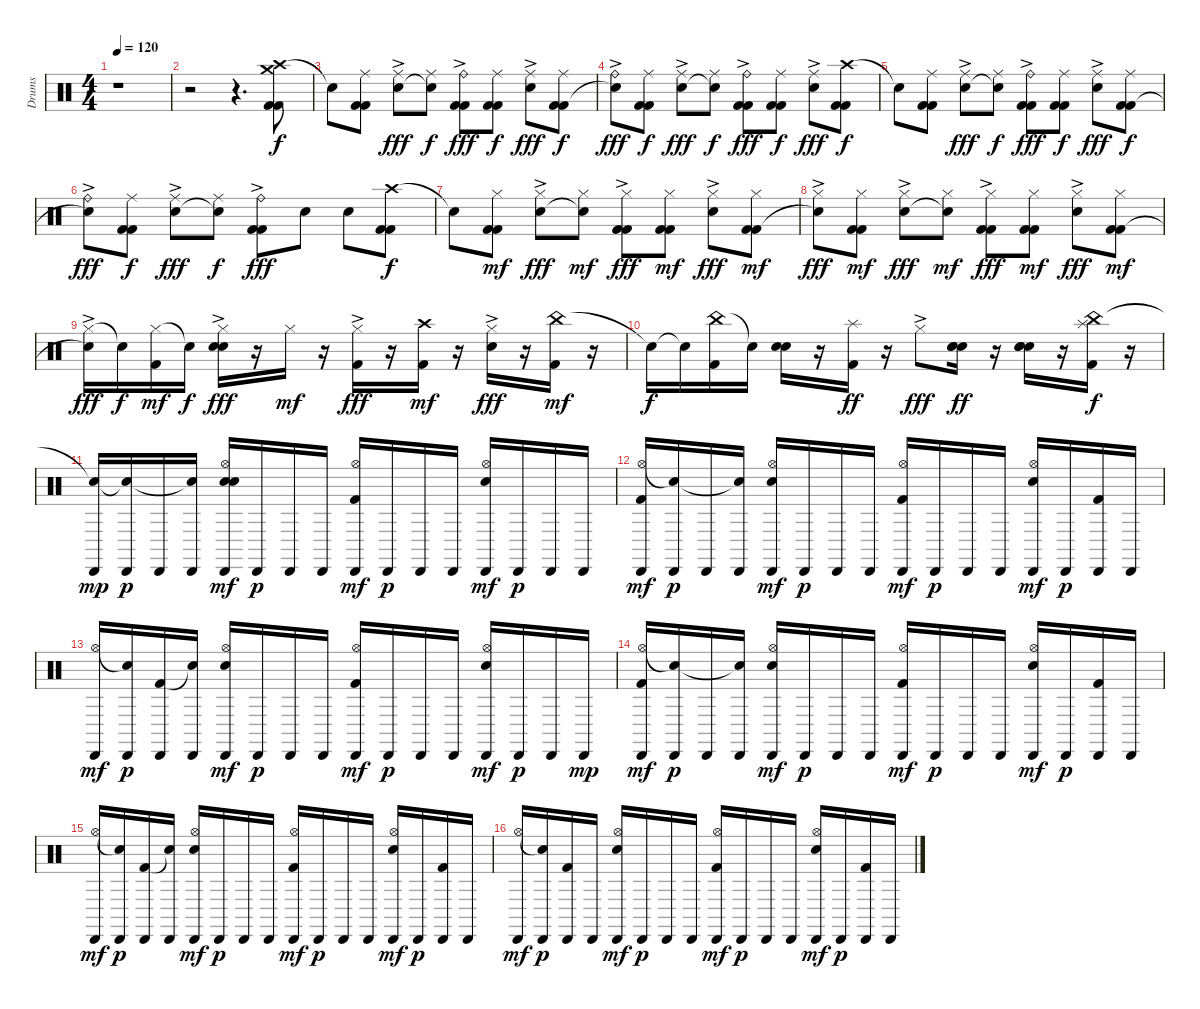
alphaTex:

\track ("Drums" "Drums") {instrument percussion}
\staff {score}
\articulation defaults
\ts (4 4)
\tempo 120
\clef neutral
\ks c
r.1{dy f} |
r.2 r.4{d} ("Crash high (hit)" "Crash medium (hit)" "Kick (hit) 2" "Kick (hit) 2").8 |
"Snare (hit)"{t}.8 ("Ride (middle)" "Kick (hit) 2" "Kick (hit) 2").8 ("Ride (middle)"{ac} "Snare (hit) 2").8{dy fff} ("Ride (middle)" "Electric Snare (hit)"{t}).8{dy f} ("Ride (bell)"{ac} "Kick (hit) 2" "Kick (hit) 2").8{dy fff} ("Ride (middle)" "Kick (hit) 2" "Kick (hit) 2").8{dy f} ("Ride (middle)"{ac} "Snare (hit) 2").8{dy fff} ("Ride (middle)" "Kick (hit) 2" "Kick (hit) 2").8{dy f} |
("Ride (bell)"{ac} "Snare (hit)"{t}).8{dy fff} ("Ride (middle)" "Kick (hit) 2" "Kick (hit) 2").8{dy f} ("Ride (middle)"{ac} "Snare (hit) 2").8{dy fff} ("Ride (middle)" "Electric Snare (hit)"{t}).8{dy f} ("Ride (bell)"{ac} "Kick (hit) 2" "Kick (hit) 2").8{dy fff} ("Ride (middle)" "Kick (hit) 2" "Kick (hit) 2").8{dy f} ("Ride (middle)"{ac} "Snare (hit) 2").8{dy fff} ("Crash high (hit)" "Kick (hit) 2" "Kick (hit) 2").8{dy f} |
"Snare (hit)"{t}.8 ("Ride (middle)" "Kick (hit) 2" "Kick (hit) 2").8 ("Ride (middle)"{ac} "Snare (hit) 2").8{dy fff} ("Ride (middle)" "Electric Snare (hit)"{t}).8{dy f} ("Ride (bell)"{ac} "Kick (hit) 2" "Kick (hit) 2").8{dy fff} ("Ride (middle)" "Kick (hit) 2" "Kick (hit) 2").8{dy f} ("Ride (middle)"{ac} "Snare (hit) 2").8{dy fff} ("Ride (middle)" "Kick (hit) 2" "Kick (hit) 2").8{dy f} |
("Ride (bell)"{ac} "Snare (hit)"{t}).8{dy fff} ("Ride (middle)" "Kick (hit) 2" "Kick (hit) 2").8{dy f} ("Ride (middle)"{ac} "Snare (hit) 2").8{dy fff} ("Ride (middle)" "Electric Snare (hit)"{t}).8{dy f} ("Ride (bell)"{ac} "Kick (hit) 2" "Kick (hit) 2").8{dy fff} "Snare (hit) 2".8 "Snare (hit) 2".8 ("Crash high (hit)" "Kick (hit) 2" "Kick (hit) 2").8{dy f} |
"Snare (hit)"{t}.8 ("Hi-Hat (closed)" "Kick (hit) 2" "Kick (hit) 2").8{dy mf} ("Hi-Hat (closed)"{ac} "Snare (hit) 2").8{dy fff} ("Hi-Hat (closed)" "Electric Snare (hit)"{t}).8{dy mf} ("Hi-Hat (closed)"{ac} "Kick (hit) 2" "Kick (hit) 2").8{dy fff} ("Hi-Hat (closed)" "Kick (hit) 2" "Kick (hit) 2").8{dy mf} ("Hi-Hat (closed)"{ac} "Snare (hit) 2").8{dy fff} ("Hi-Hat (closed)" "Kick (hit) 2" "Kick (hit) 2").8{dy mf} |
("Hi-Hat (closed)"{ac} "Snare (hit)"{t}).8{dy fff} ("Hi-Hat (closed)" "Kick (hit) 2" "Kick (hit) 2").8{dy mf} ("Hi-Hat (closed)"{ac} "Snare (hit) 2").8{dy fff} ("Hi-Hat (closed)" "Electric Snare (hit)"{t}).8{dy mf} ("Hi-Hat (closed)"{ac} "Kick (hit) 2" "Kick (hit) 2").8{dy fff} ("Hi-Hat (closed)" "Kick (hit) 2" "Kick (hit) 2").8{dy mf} ("Hi-Hat (closed)"{ac} "Snare (hit) 2").8{dy fff} ("Hi-Hat (closed)" "Kick (hit) 2" "Kick (hit) 2").8{dy mf} |
("Hi-Hat (closed)"{ac} "Snare (hit)"{t}).16{dy fff} "Snare (hit)"{t}.16{dy f} ("Hi-Hat (closed)" "Kick (hit) 2").16{dy mf} "Snare (hit)"{t}.16{dy f} ("Hi-Hat (closed)"{ac} "Snare (hit) 2" "Snare (hit) 2").16{dy fff} r.16 "Hi-Hat (closed)".16{dy mf} r.16 ("Hi-Hat (closed)"{ac} "Kick (hit) 2").16{dy fff} r.16 ("Crash high (hit)" "Kick (hit) 2").16{dy mf} r.16 ("Hi-Hat (closed)"{ac} "Snare (hit) 2").16{dy fff} r.16 ("China (hit)" "Kick (hit) 2").16{dy mf} r.16 |
"Snare (hit)"{t}.16{dy f} "Snare (hit)"{t}.16 ("China (hit)" "Kick (hit) 2").16 "Snare (hit)"{t}.16 ("Snare (hit) 2" "Snare (hit) 2").16 r.16 ("Splash (hit)" "Kick (hit) 2").16{dy ff} r.16 "Hi-Hat (closed)"{ac}.8{dy fff} ("Snare (hit) 2" "Snare (hit) 2" "Snare (hit) 2").16{dy ff} r.16 ("Snare (hit) 2" "Snare (hit) 2" "Snare (hit) 2").16 r.16 ("Splash (hit)" "China (hit)" "Kick (hit) 2").16{dy f} r.16 |
("Cabasa (hit)" "Snare (hit)"{t}).16{dy mp} ("Cabasa (hit)" "Snare (hit)"{t}).16{dy p} "Cabasa (hit)".16 ("Cabasa (hit)" "Snare (hit)"{t}).16 ("Cabasa (hit)" "Hi-Hat (open)" "Snare (hit) 2" "Snare (hit) 2").16{dy mf} "Cabasa (hit)".16{dy p} "Cabasa (hit)".16 "Cabasa (hit)".16 ("Cabasa (hit)" "Hi-Hat (open)" "Kick (hit) 2").16{dy mf} "Cabasa (hit)".16{dy p} "Cabasa (hit)".16 "Cabasa (hit)".16 ("Cabasa (hit)" "Hi-Hat (open)" "Snare (hit) 2").16{dy mf} "Cabasa (hit)".16{dy p} "Cabasa (hit)".16 "Cabasa (hit)".16 |
("Cabasa (hit)" "Hi-Hat (open)" "Kick (hit) 2").16{dy mf} ("Cabasa (hit)" "Snare (hit)"{t}).16{dy p} "Cabasa (hit)".16 ("Cabasa (hit)" "Snare (hit)"{t}).16 ("Cabasa (hit)" "Hi-Hat (open)" "Snare (hit) 2").16{dy mf} "Cabasa (hit)".16{dy p} "Cabasa (hit)".16 "Cabasa (hit)".16 ("Cabasa (hit)" "Hi-Hat (open)" "Kick (hit) 2").16{dy mf} "Cabasa (hit)".16{dy p} "Cabasa (hit)".16 "Cabasa (hit)".16 ("Cabasa (hit)" "Hi-Hat (open)" "Snare (hit) 2").16{dy mf} "Cabasa (hit)".16{dy p} ("Cabasa (hit)" "Kick (hit) 2").16 "Cabasa (hit)".16 |
("Cabasa (hit)" "Hi-Hat (open)").16{dy mf} ("Cabasa (hit)" "Snare (hit)"{t}).16{dy p} ("Cabasa (hit)" "Kick (hit) 2").16 ("Cabasa (hit)" "Snare (hit)"{t}).16 ("Cabasa (hit)" "Hi-Hat (open)" "Snare (hit) 2").16{dy mf} "Cabasa (hit)".16{dy p} "Cabasa (hit)".16 "Cabasa (hit)".16 ("Cabasa (hit)" "Hi-Hat (open)" "Kick (hit) 2").16{dy mf} "Cabasa (hit)".16{dy p} "Cabasa (hit)".16 "Cabasa (hit)".16 ("Cabasa (hit)" "Hi-Hat (open)" "Snare (hit) 2").16{dy mf} "Cabasa (hit)".16{dy p} "Cabasa (hit)".16 "Cabasa (hit)".16{dy mp} |
("Cabasa (hit)" "Hi-Hat (open)" "Kick (hit) 2").16{dy mf} ("Cabasa (hit)" "Snare (hit)"{t}).16{dy p} "Cabasa (hit)".16 ("Cabasa (hit)" "Snare (hit)"{t}).16 ("Cabasa (hit)" "Hi-Hat (open)" "Snare (hit) 2").16{dy mf} "Cabasa (hit)".16{dy p} "Cabasa (hit)".16 "Cabasa (hit)".16 ("Cabasa (hit)" "Hi-Hat (open)" "Kick (hit) 2").16{dy mf} "Cabasa (hit)".16{dy p} "Cabasa (hit)".16 "Cabasa (hit)".16 ("Cabasa (hit)" "Hi-Hat (open)" "Snare (hit) 2").16{dy mf} "Cabasa (hit)".16{dy p} ("Cabasa (hit)" "Kick (hit) 2").16 "Cabasa (hit)".16 |
("Cabasa (hit)" "Hi-Hat (open)").16{dy mf} ("Cabasa (hit)" "Snare (hit)"{t}).16{dy p} ("Cabasa (hit)" "Kick (hit) 2").16 ("Cabasa (hit)" "Snare (hit)"{t}).16 ("Cabasa (hit)" "Hi-Hat (open)" "Snare (hit) 2").16{dy mf} "Cabasa (hit)".16{dy p} "Cabasa (hit)".16 "Cabasa (hit)".16 ("Cabasa (hit)" "Hi-Hat (open)" "Kick (hit) 2").16{dy mf} "Cabasa (hit)".16{dy p} "Cabasa (hit)".16 "Cabasa (hit)".16 ("Cabasa (hit)" "Hi-Hat (open)" "Snare (hit) 2").16{dy mf} "Cabasa (hit)".16{dy p} ("Cabasa (hit)" "Kick (hit) 2").16 "Cabasa (hit)".16 |
("Cabasa (hit)" "Hi-Hat (open)").16{dy mf} ("Cabasa (hit)" "Snare (hit)"{t}).16{dy p} ("Cabasa (hit)" "Kick (hit) 2").16 "Cabasa (hit)".16 ("Cabasa (hit)" "Hi-Hat (open)" "Snare (hit) 2").16{dy mf} "Cabasa (hit)".16{dy p} "Cabasa (hit)".16 "Cabasa (hit)".16 ("Cabasa (hit)" "Hi-Hat (open)" "Kick (hit) 2").16{dy mf} "Cabasa (hit)".16{dy p} "Cabasa (hit)".16 "Cabasa (hit)".16 ("Cabasa (hit)" "Hi-Hat (open)" "Snare (hit) 2").16{dy mf} "Cabasa (hit)".16{dy p} ("Cabasa (hit)" "Kick (hit) 2").16 "Cabasa (hit)".16
